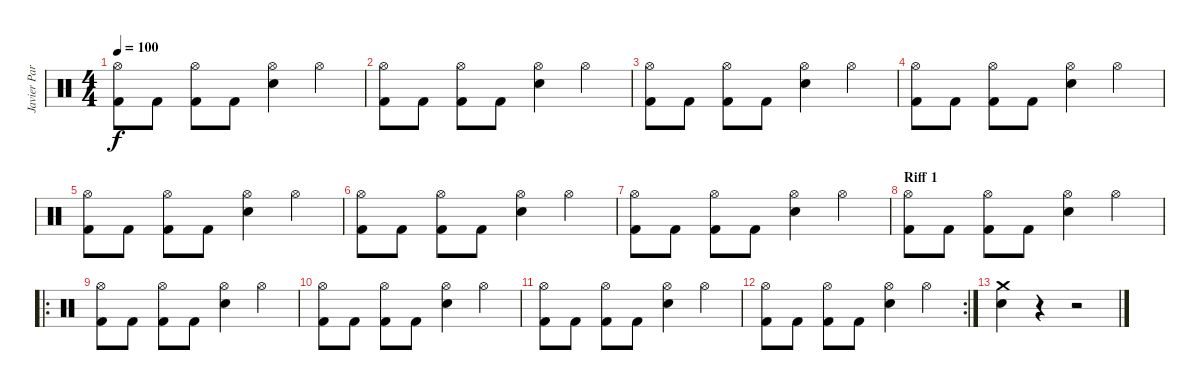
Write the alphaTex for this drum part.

\track ("Javier Partida" "Javier Par") {instrument percussion}
\staff {score}
\articulation defaults
\ts (4 4)
\tempo 100
\clef neutral
\ks c
("Kick (hit) 2" "Hi-Hat (open)").8{dy f} "Kick (hit) 2".8 ("Kick (hit) 2" "Hi-Hat (open)").8 "Kick (hit) 2".8 ("Snare (hit) 2" "Hi-Hat (open)").4 "Hi-Hat (open)".4 |
("Kick (hit) 2" "Hi-Hat (open)").8 "Kick (hit) 2".8 ("Kick (hit) 2" "Hi-Hat (open)").8 "Kick (hit) 2".8 ("Snare (hit) 2" "Hi-Hat (open)").4 "Hi-Hat (open)".4 |
("Kick (hit) 2" "Hi-Hat (open)").8 "Kick (hit) 2".8 ("Kick (hit) 2" "Hi-Hat (open)").8 "Kick (hit) 2".8 ("Snare (hit) 2" "Hi-Hat (open)").4 "Hi-Hat (open)".4 |
("Kick (hit) 2" "Hi-Hat (open)").8 "Kick (hit) 2".8 ("Kick (hit) 2" "Hi-Hat (open)").8 "Kick (hit) 2".8 ("Snare (hit) 2" "Hi-Hat (open)").4 "Hi-Hat (open)".4 |
("Kick (hit) 2" "Hi-Hat (open)").8 "Kick (hit) 2".8 ("Kick (hit) 2" "Hi-Hat (open)").8 "Kick (hit) 2".8 ("Snare (hit) 2" "Hi-Hat (open)").4 "Hi-Hat (open)".4 |
("Kick (hit) 2" "Hi-Hat (open)").8 "Kick (hit) 2".8 ("Kick (hit) 2" "Hi-Hat (open)").8 "Kick (hit) 2".8 ("Snare (hit) 2" "Hi-Hat (open)").4 "Hi-Hat (open)".4 |
("Kick (hit) 2" "Hi-Hat (open)").8 "Kick (hit) 2".8 ("Kick (hit) 2" "Hi-Hat (open)").8 "Kick (hit) 2".8 ("Snare (hit) 2" "Hi-Hat (open)").4 "Hi-Hat (open)".4 |
\section ("" "Riff 1")
("Kick (hit) 2" "Hi-Hat (open)").8 "Kick (hit) 2".8 ("Kick (hit) 2" "Hi-Hat (open)").8 "Kick (hit) 2".8 ("Snare (hit) 2" "Hi-Hat (open)").4 "Hi-Hat (open)".4 |
\ro
("Kick (hit) 2" "Hi-Hat (open)").8 "Kick (hit) 2".8 ("Kick (hit) 2" "Hi-Hat (open)").8 "Kick (hit) 2".8 ("Snare (hit) 2" "Hi-Hat (open)").4 "Hi-Hat (open)".4 |
("Kick (hit) 2" "Hi-Hat (open)").8 "Kick (hit) 2".8 ("Kick (hit) 2" "Hi-Hat (open)").8 "Kick (hit) 2".8 ("Snare (hit) 2" "Hi-Hat (open)").4 "Hi-Hat (open)".4 |
("Kick (hit) 2" "Hi-Hat (open)").8 "Kick (hit) 2".8 ("Kick (hit) 2" "Hi-Hat (open)").8 "Kick (hit) 2".8 ("Snare (hit) 2" "Hi-Hat (open)").4 "Hi-Hat (open)".4 |
\rc 2
("Kick (hit) 2" "Hi-Hat (open)").8 "Kick (hit) 2".8 ("Kick (hit) 2" "Hi-Hat (open)").8 "Kick (hit) 2".8 ("Snare (hit) 2" "Hi-Hat (open)").4 "Hi-Hat (open)".4 |
("Crash medium (hit)" "Snare (hit) 2").4 r.4 r.2
